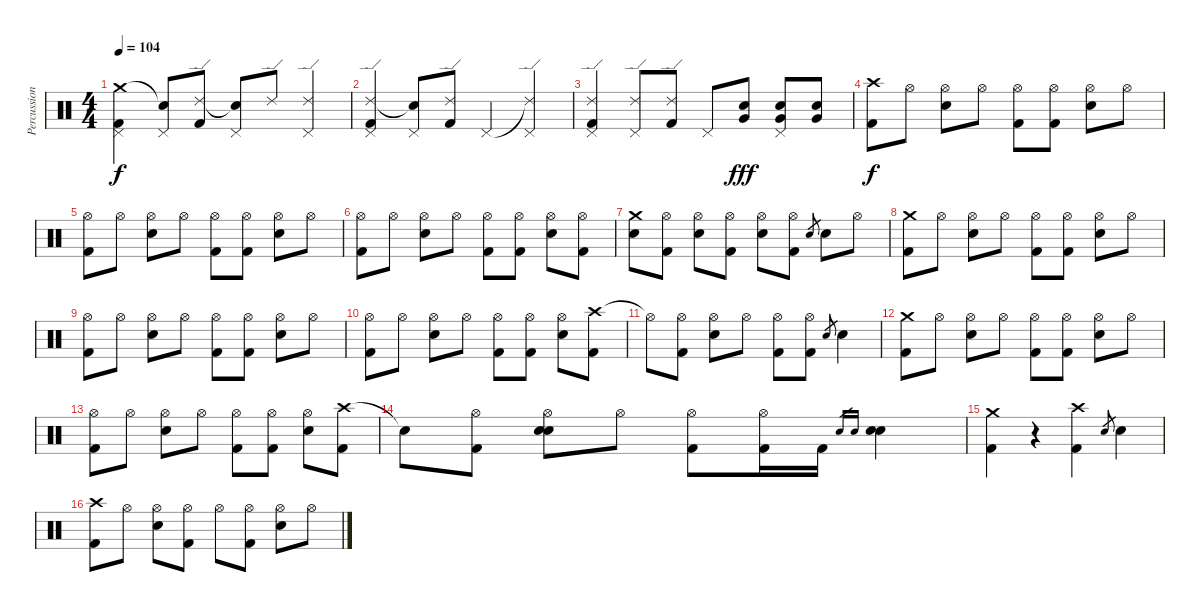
\track ("Percussion" "Percussion") {instrument percussion}
\staff {score}
\articulation defaults
\ts (4 4)
\tempo 104
\clef neutral
\ks c
("Crash medium (hit)" "Kick (hit) 2" "Pedal Hi-Hat (hit)").4{dy f} ("Snare (hit)"{t} "Pedal Hi-Hat (hit)").8 ("Ride (edge) 2" "Kick (hit) 2").8 ("Snare (hit)"{t} "Pedal Hi-Hat (hit)").8 "Ride (edge) 2".8 ("Ride (edge) 2" "Pedal Hi-Hat (hit)").4 |
("Ride (edge) 2" "Kick (hit) 2" "Pedal Hi-Hat (hit)").4 ("Snare (hit)"{t} "Pedal Hi-Hat (hit)").8 ("Ride (edge) 2" "Kick (hit) 2").8 "Pedal Hi-Hat (hit)".4 ("Ride (edge) 2"{t} "Pedal Hi-Hat (hit)").4 |
("Ride (edge) 2" "Kick (hit) 2" "Pedal Hi-Hat (hit)").4 ("Ride (edge) 2" "Pedal Hi-Hat (hit)").8 ("Ride (edge) 2" "Kick (hit) 2").8 "Pedal Hi-Hat (hit)".8 ("Snare (hit) 2" "Very Low Tom (hit)").8{dy fff} ("Snare (hit) 2" "Very Low Tom (hit)" "Pedal Hi-Hat (hit)").8 ("Snare (hit) 2" "Very Low Tom (hit)").8 |
("Crash high (hit)" "Kick (hit) 2").8{dy f} "Hi-Hat (open)".8 ("Hi-Hat (open)" "Snare (hit) 2").8 "Hi-Hat (open)".8 ("Hi-Hat (open)" "Kick (hit) 2").8 ("Hi-Hat (open)" "Kick (hit) 2").8 ("Hi-Hat (open)" "Snare (hit) 2").8 "Hi-Hat (open)".8 |
("Hi-Hat (open)" "Kick (hit) 2").8 "Hi-Hat (open)".8 ("Hi-Hat (open)" "Snare (hit) 2").8 "Hi-Hat (open)".8 ("Hi-Hat (open)" "Kick (hit) 2").8 ("Hi-Hat (open)" "Kick (hit) 2").8 ("Hi-Hat (open)" "Snare (hit) 2").8 "Hi-Hat (open)".8 |
("Hi-Hat (open)" "Kick (hit) 2").8 "Hi-Hat (open)".8 ("Hi-Hat (open)" "Snare (hit) 2").8 "Hi-Hat (open)".8 ("Hi-Hat (open)" "Kick (hit) 2").8 ("Hi-Hat (open)" "Kick (hit) 2").8 ("Hi-Hat (open)" "Snare (hit) 2").8 ("Hi-Hat (open)" "Kick (hit) 2").8 |
("Crash medium (hit)" "Snare (hit) 2").8 ("Hi-Hat (open)" "Kick (hit) 2").8 ("Hi-Hat (open)" "Snare (hit) 2").8 ("Hi-Hat (open)" "Kick (hit) 2").8 ("Hi-Hat (open)" "Snare (hit) 2").8 ("Hi-Hat (open)" "Kick (hit) 2").8 "Snare (hit) 2".8{gr} "Snare (hit) 2".8 "Hi-Hat (open)".8 |
("Crash medium (hit)" "Kick (hit) 2").8 "Hi-Hat (open)".8 ("Hi-Hat (open)" "Snare (hit) 2").8 "Hi-Hat (open)".8 ("Hi-Hat (open)" "Kick (hit) 2").8 ("Hi-Hat (open)" "Kick (hit) 2").8 ("Hi-Hat (open)" "Snare (hit) 2").8 "Hi-Hat (open)".8 |
("Hi-Hat (open)" "Kick (hit) 2").8 "Hi-Hat (open)".8 ("Hi-Hat (open)" "Snare (hit) 2").8 "Hi-Hat (open)".8 ("Hi-Hat (open)" "Kick (hit) 2").8 ("Hi-Hat (open)" "Kick (hit) 2").8 ("Hi-Hat (open)" "Snare (hit) 2").8 "Hi-Hat (open)".8 |
("Hi-Hat (open)" "Kick (hit) 2").8 "Hi-Hat (open)".8 ("Hi-Hat (open)" "Snare (hit) 2").8 "Hi-Hat (open)".8 ("Hi-Hat (open)" "Kick (hit) 2").8 ("Hi-Hat (open)" "Kick (hit) 2").8 ("Hi-Hat (open)" "Snare (hit) 2").8 ("Crash high (hit)" "Kick (hit) 2").8 |
"Hi-Hat (open)"{t}.8 ("Hi-Hat (open)" "Kick (hit) 2").8 ("Hi-Hat (open)" "Snare (hit) 2").8 "Hi-Hat (open)".8 ("Hi-Hat (open)" "Kick (hit) 2").8 ("Hi-Hat (open)" "Kick (hit) 2").8 "Snare (hit) 2".8{gr} "Snare (hit) 2".4 |
("Crash medium (hit)" "Kick (hit) 2").8 "Hi-Hat (open)".8 ("Hi-Hat (open)" "Snare (hit) 2").8 "Hi-Hat (open)".8 ("Hi-Hat (open)" "Kick (hit) 2").8 ("Hi-Hat (open)" "Kick (hit) 2").8 ("Hi-Hat (open)" "Snare (hit) 2").8 "Hi-Hat (open)".8 |
("Hi-Hat (open)" "Kick (hit) 2").8 "Hi-Hat (open)".8 ("Hi-Hat (open)" "Snare (hit) 2").8 "Hi-Hat (open)".8 ("Hi-Hat (open)" "Kick (hit) 2").8 ("Hi-Hat (open)" "Kick (hit) 2").8 ("Hi-Hat (open)" "Snare (hit) 2").8 ("Crash high (hit)" "Kick (hit) 2").8 |
"Snare (hit)"{t}.8 ("Hi-Hat (open)" "Kick (hit) 2").8 ("Hi-Hat (open)" "Electric Snare (hit)" "Snare (hit) 2").8 "Hi-Hat (open)".8 ("Hi-Hat (open)" "Kick (hit) 2").8 ("Hi-Hat (open)" "Kick (hit) 2").16 "Kick (hit) 2".16 "Electric Snare (hit)".16{gr} "Snare (hit) 2".16{gr} ("Electric Snare (hit)" "Snare (hit) 2").4 |
("Crash medium (hit)" "Kick (hit) 2").4 r.4 ("Crash high (hit)" "Kick (hit) 2").4 "Snare (hit) 2".8{gr} "Snare (hit) 2".4 |
("Crash high (hit)" "Kick (hit) 2").8 "Hi-Hat (open)".8 ("Hi-Hat (open)" "Snare (hit) 2").8 ("Hi-Hat (open)" "Kick (hit) 2").8 "Hi-Hat (open)".8 ("Hi-Hat (open)" "Kick (hit) 2").8 ("Hi-Hat (open)" "Snare (hit) 2").8 "Hi-Hat (open)".8
